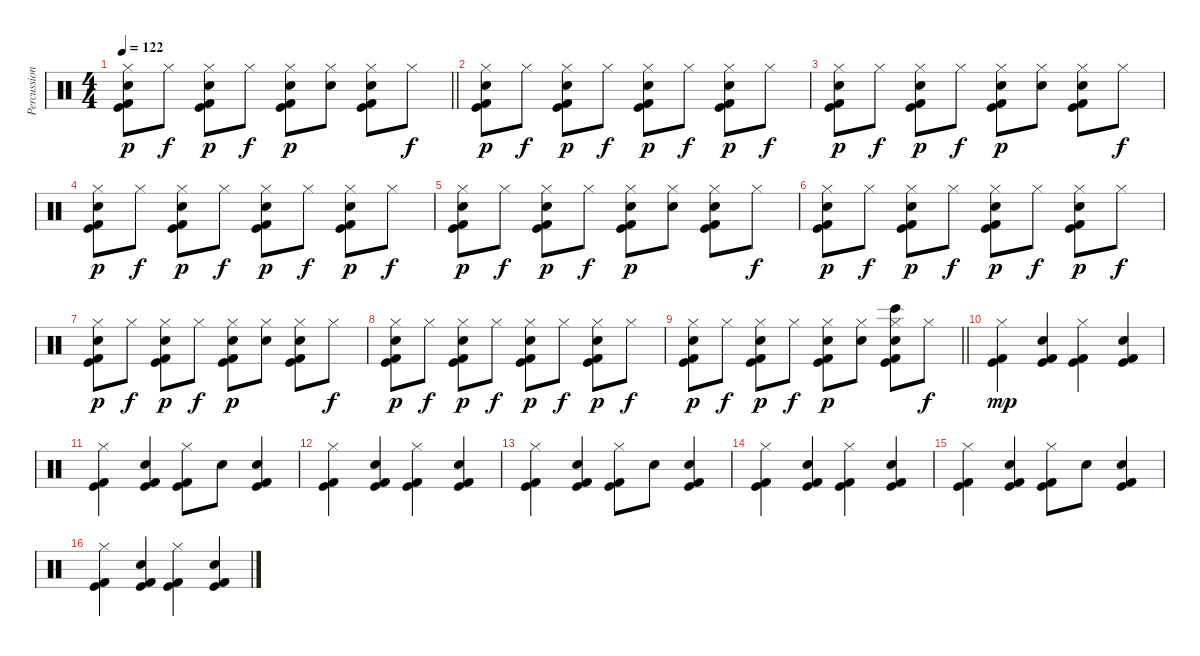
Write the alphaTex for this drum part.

\track ("Percussion" "Percussion") {instrument percussion}
\staff {score}
\articulation defaults
\ts (4 4)
\tempo 122
\clef neutral
\barLineRight lightlight
\ks c
("Hi-Hat (closed)" "Hand Clap (hit)" "Kick (hit)" "Kick (hit) 2").8{dy p} "Hi-Hat (closed)".8{dy f} ("Hi-Hat (closed)" "Hand Clap (hit)" "Kick (hit)" "Kick (hit) 2").8{dy p} "Hi-Hat (closed)".8{dy f} ("Hi-Hat (closed)" "Hand Clap (hit)" "Kick (hit)" "Kick (hit) 2").8{dy p} ("Hi-Hat (closed)" "Hand Clap (hit)").8 ("Hi-Hat (closed)" "Hand Clap (hit)" "Kick (hit)" "Kick (hit) 2").8 "Hi-Hat (closed)".8{dy f} |
\section ("" "")
("Hi-Hat (closed)" "Hand Clap (hit)" "Kick (hit)" "Kick (hit) 2").8{dy p volume 10} "Hi-Hat (closed)".8{dy f} ("Hi-Hat (closed)" "Hand Clap (hit)" "Kick (hit)" "Kick (hit) 2").8{dy p} "Hi-Hat (closed)".8{dy f} ("Hi-Hat (closed)" "Hand Clap (hit)" "Kick (hit)" "Kick (hit) 2").8{dy p} "Hi-Hat (closed)".8{dy f} ("Hi-Hat (closed)" "Hand Clap (hit)" "Kick (hit)" "Kick (hit) 2").8{dy p} "Hi-Hat (closed)".8{dy f} |
("Hi-Hat (closed)" "Hand Clap (hit)" "Kick (hit)" "Kick (hit) 2").8{dy p} "Hi-Hat (closed)".8{dy f} ("Hi-Hat (closed)" "Hand Clap (hit)" "Kick (hit)" "Kick (hit) 2").8{dy p} "Hi-Hat (closed)".8{dy f} ("Hi-Hat (closed)" "Hand Clap (hit)" "Kick (hit)" "Kick (hit) 2").8{dy p} ("Hi-Hat (closed)" "Hand Clap (hit)").8 ("Hi-Hat (closed)" "Hand Clap (hit)" "Kick (hit)" "Kick (hit) 2").8 "Hi-Hat (closed)".8{dy f} |
("Hi-Hat (closed)" "Hand Clap (hit)" "Kick (hit)" "Kick (hit) 2").8{dy p} "Hi-Hat (closed)".8{dy f} ("Hi-Hat (closed)" "Hand Clap (hit)" "Kick (hit)" "Kick (hit) 2").8{dy p} "Hi-Hat (closed)".8{dy f} ("Hi-Hat (closed)" "Hand Clap (hit)" "Kick (hit)" "Kick (hit) 2").8{dy p} "Hi-Hat (closed)".8{dy f} ("Hi-Hat (closed)" "Hand Clap (hit)" "Kick (hit)" "Kick (hit) 2").8{dy p} "Hi-Hat (closed)".8{dy f} |
("Hi-Hat (closed)" "Hand Clap (hit)" "Kick (hit)" "Kick (hit) 2").8{dy p} "Hi-Hat (closed)".8{dy f} ("Hi-Hat (closed)" "Hand Clap (hit)" "Kick (hit)" "Kick (hit) 2").8{dy p} "Hi-Hat (closed)".8{dy f} ("Hi-Hat (closed)" "Hand Clap (hit)" "Kick (hit)" "Kick (hit) 2").8{dy p} ("Hi-Hat (closed)" "Hand Clap (hit)").8 ("Hi-Hat (closed)" "Hand Clap (hit)" "Kick (hit)" "Kick (hit) 2").8 "Hi-Hat (closed)".8{dy f} |
("Hi-Hat (closed)" "Hand Clap (hit)" "Kick (hit)" "Kick (hit) 2").8{dy p} "Hi-Hat (closed)".8{dy f} ("Hi-Hat (closed)" "Hand Clap (hit)" "Kick (hit)" "Kick (hit) 2").8{dy p} "Hi-Hat (closed)".8{dy f} ("Hi-Hat (closed)" "Hand Clap (hit)" "Kick (hit)" "Kick (hit) 2").8{dy p} "Hi-Hat (closed)".8{dy f} ("Hi-Hat (closed)" "Hand Clap (hit)" "Kick (hit)" "Kick (hit) 2").8{dy p} "Hi-Hat (closed)".8{dy f} |
("Hi-Hat (closed)" "Hand Clap (hit)" "Kick (hit)" "Kick (hit) 2").8{dy p} "Hi-Hat (closed)".8{dy f} ("Hi-Hat (closed)" "Hand Clap (hit)" "Kick (hit)" "Kick (hit) 2").8{dy p} "Hi-Hat (closed)".8{dy f} ("Hi-Hat (closed)" "Hand Clap (hit)" "Kick (hit)" "Kick (hit) 2").8{dy p} ("Hi-Hat (closed)" "Hand Clap (hit)").8 ("Hi-Hat (closed)" "Hand Clap (hit)" "Kick (hit)" "Kick (hit) 2").8 "Hi-Hat (closed)".8{dy f} |
("Hi-Hat (closed)" "Hand Clap (hit)" "Kick (hit)" "Kick (hit) 2").8{dy p} "Hi-Hat (closed)".8{dy f} ("Hi-Hat (closed)" "Hand Clap (hit)" "Kick (hit)" "Kick (hit) 2").8{dy p} "Hi-Hat (closed)".8{dy f} ("Hi-Hat (closed)" "Hand Clap (hit)" "Kick (hit)" "Kick (hit) 2").8{dy p} "Hi-Hat (closed)".8{dy f} ("Hi-Hat (closed)" "Hand Clap (hit)" "Kick (hit)" "Kick (hit) 2").8{dy p} "Hi-Hat (closed)".8{dy f} |
\barLineRight lightlight
("Hi-Hat (closed)" "Hand Clap (hit)" "Kick (hit)" "Kick (hit) 2").8{dy p} "Hi-Hat (closed)".8{dy f} ("Hi-Hat (closed)" "Hand Clap (hit)" "Kick (hit)" "Kick (hit) 2").8{dy p} "Hi-Hat (closed)".8{dy f} ("Hi-Hat (closed)" "Hand Clap (hit)" "Kick (hit)" "Kick (hit) 2").8{dy p} ("Hi-Hat (closed)" "Hand Clap (hit)").8 ("Hi-Hat (closed)" "Bongo High (hit)" "Hand Clap (hit)" "Kick (hit)" "Kick (hit) 2").8 "Hi-Hat (closed)".8{dy f} |
\section ("" "")
("Hi-Hat (closed)" "Kick (hit)" "Kick (hit) 2").4{dy mp volume 13} ("Hand Clap (hit)" "Kick (hit)" "Kick (hit) 2").4 ("Hi-Hat (closed)" "Kick (hit)" "Kick (hit) 2").4 ("Hand Clap (hit)" "Kick (hit)" "Kick (hit) 2").4 |
("Hi-Hat (closed)" "Kick (hit)" "Kick (hit) 2").4 ("Hand Clap (hit)" "Kick (hit)" "Kick (hit) 2").4 ("Hi-Hat (closed)" "Kick (hit)" "Kick (hit) 2").8 "Hand Clap (hit)".8 ("Hand Clap (hit)" "Kick (hit)" "Kick (hit) 2").4 |
("Hi-Hat (closed)" "Kick (hit)" "Kick (hit) 2").4 ("Hand Clap (hit)" "Kick (hit)" "Kick (hit) 2").4 ("Hi-Hat (closed)" "Kick (hit)" "Kick (hit) 2").4 ("Hand Clap (hit)" "Kick (hit)" "Kick (hit) 2").4 |
("Hi-Hat (closed)" "Kick (hit)" "Kick (hit) 2").4 ("Hand Clap (hit)" "Kick (hit)" "Kick (hit) 2").4 ("Hi-Hat (closed)" "Kick (hit)" "Kick (hit) 2").8 "Hand Clap (hit)".8 ("Hand Clap (hit)" "Kick (hit)" "Kick (hit) 2").4 |
("Hi-Hat (closed)" "Kick (hit)" "Kick (hit) 2").4 ("Hand Clap (hit)" "Kick (hit)" "Kick (hit) 2").4 ("Hi-Hat (closed)" "Kick (hit)" "Kick (hit) 2").4 ("Hand Clap (hit)" "Kick (hit)" "Kick (hit) 2").4 |
("Hi-Hat (closed)" "Kick (hit)" "Kick (hit) 2").4 ("Hand Clap (hit)" "Kick (hit)" "Kick (hit) 2").4 ("Hi-Hat (closed)" "Kick (hit)" "Kick (hit) 2").8 "Hand Clap (hit)".8 ("Hand Clap (hit)" "Kick (hit)" "Kick (hit) 2").4 |
("Hi-Hat (closed)" "Kick (hit)" "Kick (hit) 2").4 ("Hand Clap (hit)" "Kick (hit)" "Kick (hit) 2").4 ("Hi-Hat (closed)" "Kick (hit)" "Kick (hit) 2").4 ("Hand Clap (hit)" "Kick (hit)" "Kick (hit) 2").4
